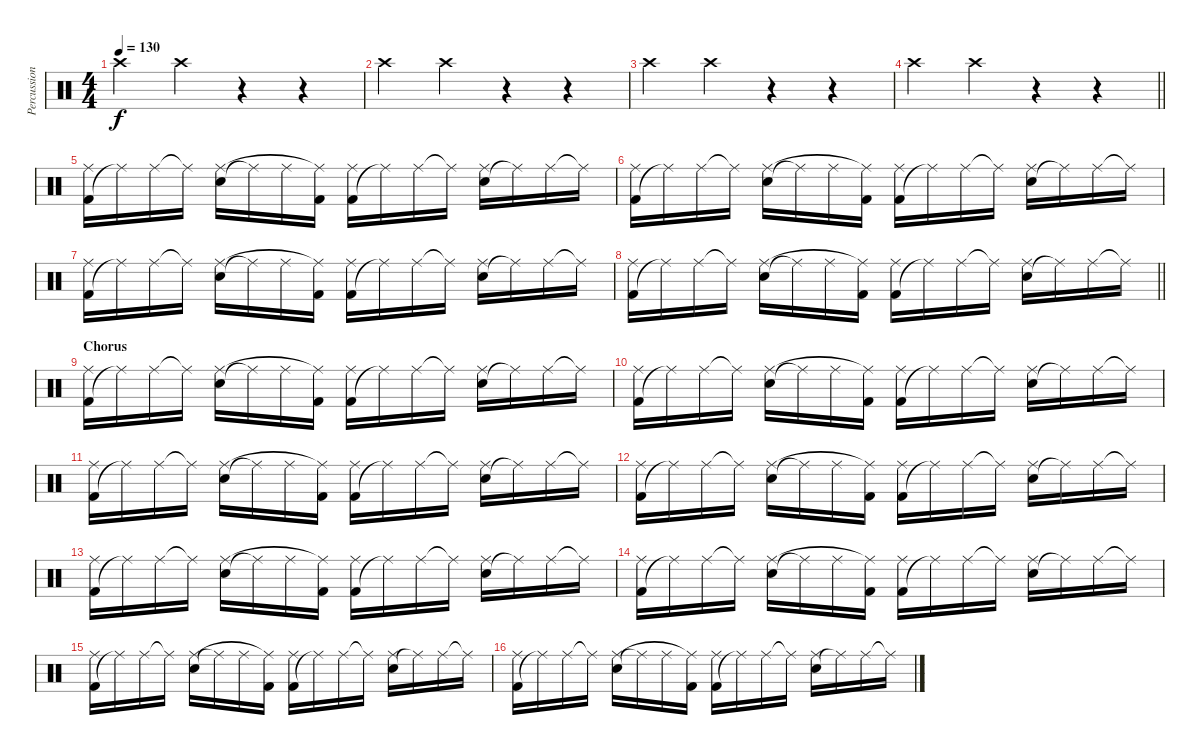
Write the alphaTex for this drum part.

\track ("Percussion" "Percussion") {instrument percussion}
\staff {score}
\articulation defaults
\ts (4 4)
\tempo 130
\clef neutral
\ks c "Crash high (hit)".4{dy f} "Crash high (hit)".4
r.4 r.4 |
"Crash high (hit)".4 "Crash high (hit)".4 r.4 r.4 |
"Crash high (hit)".4 "Crash high (hit)".4 r.4 r.4 |
\barLineRight lightlight "Crash high (hit)".4 "Crash high (hit)".4
r.4 r.4 |
("Kick (hit) 2" "Ride (middle)").16 "Ride (middle)"{t}.16 "Ride (middle)".16 "Ride (middle)"{t}.16 ("Snare (hit) 2" "Ride (middle)").16 "Ride (middle)"{t}.16 "Ride (middle)".16 ("Kick (hit) 2" "Ride (middle)"{t}).16 ("Kick (hit) 2" "Ride (middle)").16 "Ride (middle)"{t}.16 "Ride (middle)".16 "Ride (middle)"{t}.16 ("Snare (hit) 2" "Ride (middle)").16 "Ride (middle)"{t}.16 "Ride (middle)".16 "Ride (middle)"{t}.16 |
("Kick (hit) 2" "Ride (middle)").16 "Ride (middle)"{t}.16 "Ride (middle)".16 "Ride (middle)"{t}.16 ("Snare (hit) 2" "Ride (middle)").16 "Ride (middle)"{t}.16 "Ride (middle)".16 ("Kick (hit) 2" "Ride (middle)"{t}).16 ("Kick (hit) 2" "Ride (middle)").16 "Ride (middle)"{t}.16 "Ride (middle)".16 "Ride (middle)"{t}.16 ("Snare (hit) 2" "Ride (middle)").16 "Ride (middle)"{t}.16 "Ride (middle)".16 "Ride (middle)"{t}.16 |
("Kick (hit) 2" "Ride (middle)").16 "Ride (middle)"{t}.16 "Ride (middle)".16 "Ride (middle)"{t}.16 ("Snare (hit) 2" "Ride (middle)").16 "Ride (middle)"{t}.16 "Ride (middle)".16 ("Kick (hit) 2" "Ride (middle)"{t}).16 ("Kick (hit) 2" "Ride (middle)").16 "Ride (middle)"{t}.16 "Ride (middle)".16 "Ride (middle)"{t}.16 ("Snare (hit) 2" "Ride (middle)").16 "Ride (middle)"{t}.16 "Ride (middle)".16 "Ride (middle)"{t}.16 |
\barLineRight lightlight
("Kick (hit) 2" "Ride (middle)").16 "Ride (middle)"{t}.16 "Ride (middle)".16 "Ride (middle)"{t}.16 ("Snare (hit) 2" "Ride (middle)").16 "Ride (middle)"{t}.16 "Ride (middle)".16 ("Kick (hit) 2" "Ride (middle)"{t}).16 ("Kick (hit) 2" "Ride (middle)").16 "Ride (middle)"{t}.16 "Ride (middle)".16 "Ride (middle)"{t}.16 ("Snare (hit) 2" "Ride (middle)").16 "Ride (middle)"{t}.16 "Ride (middle)".16 "Ride (middle)"{t}.16 |
\section ("" "Chorus")
("Kick (hit) 2" "Ride (middle)").16 "Ride (middle)"{t}.16 "Ride (middle)".16 "Ride (middle)"{t}.16 ("Snare (hit) 2" "Ride (middle)").16 "Ride (middle)"{t}.16 "Ride (middle)".16 ("Kick (hit) 2" "Ride (middle)"{t}).16 ("Kick (hit) 2" "Ride (middle)").16 "Ride (middle)"{t}.16 "Ride (middle)".16 "Ride (middle)"{t}.16 ("Snare (hit) 2" "Ride (middle)").16 "Ride (middle)"{t}.16 "Ride (middle)".16 "Ride (middle)"{t}.16 |
("Kick (hit) 2" "Ride (middle)").16 "Ride (middle)"{t}.16 "Ride (middle)".16 "Ride (middle)"{t}.16 ("Snare (hit) 2" "Ride (middle)").16 "Ride (middle)"{t}.16 "Ride (middle)".16 ("Kick (hit) 2" "Ride (middle)"{t}).16 ("Kick (hit) 2" "Ride (middle)").16 "Ride (middle)"{t}.16 "Ride (middle)".16 "Ride (middle)"{t}.16 ("Snare (hit) 2" "Ride (middle)").16 "Ride (middle)"{t}.16 "Ride (middle)".16 "Ride (middle)"{t}.16 |
("Kick (hit) 2" "Ride (middle)").16 "Ride (middle)"{t}.16 "Ride (middle)".16 "Ride (middle)"{t}.16 ("Snare (hit) 2" "Ride (middle)").16 "Ride (middle)"{t}.16 "Ride (middle)".16 ("Kick (hit) 2" "Ride (middle)"{t}).16 ("Kick (hit) 2" "Ride (middle)").16 "Ride (middle)"{t}.16 "Ride (middle)".16 "Ride (middle)"{t}.16 ("Snare (hit) 2" "Ride (middle)").16 "Ride (middle)"{t}.16 "Ride (middle)".16 "Ride (middle)"{t}.16 |
("Kick (hit) 2" "Ride (middle)").16 "Ride (middle)"{t}.16 "Ride (middle)".16 "Ride (middle)"{t}.16 ("Snare (hit) 2" "Ride (middle)").16 "Ride (middle)"{t}.16 "Ride (middle)".16 ("Kick (hit) 2" "Ride (middle)"{t}).16 ("Kick (hit) 2" "Ride (middle)").16 "Ride (middle)"{t}.16 "Ride (middle)".16 "Ride (middle)"{t}.16 ("Snare (hit) 2" "Ride (middle)").16 "Ride (middle)"{t}.16 "Ride (middle)".16 "Ride (middle)"{t}.16 |
("Kick (hit) 2" "Ride (middle)").16 "Ride (middle)"{t}.16 "Ride (middle)".16 "Ride (middle)"{t}.16 ("Snare (hit) 2" "Ride (middle)").16 "Ride (middle)"{t}.16 "Ride (middle)".16 ("Kick (hit) 2" "Ride (middle)"{t}).16 ("Kick (hit) 2" "Ride (middle)").16 "Ride (middle)"{t}.16 "Ride (middle)".16 "Ride (middle)"{t}.16 ("Snare (hit) 2" "Ride (middle)").16 "Ride (middle)"{t}.16 "Ride (middle)".16 "Ride (middle)"{t}.16 |
("Kick (hit) 2" "Ride (middle)").16 "Ride (middle)"{t}.16 "Ride (middle)".16 "Ride (middle)"{t}.16 ("Snare (hit) 2" "Ride (middle)").16 "Ride (middle)"{t}.16 "Ride (middle)".16 ("Kick (hit) 2" "Ride (middle)"{t}).16 ("Kick (hit) 2" "Ride (middle)").16 "Ride (middle)"{t}.16 "Ride (middle)".16 "Ride (middle)"{t}.16 ("Snare (hit) 2" "Ride (middle)").16 "Ride (middle)"{t}.16 "Ride (middle)".16 "Ride (middle)"{t}.16 |
("Kick (hit) 2" "Ride (middle)").16 "Ride (middle)"{t}.16 "Ride (middle)".16 "Ride (middle)"{t}.16 ("Snare (hit) 2" "Ride (middle)").16 "Ride (middle)"{t}.16 "Ride (middle)".16 ("Kick (hit) 2" "Ride (middle)"{t}).16 ("Kick (hit) 2" "Ride (middle)").16 "Ride (middle)"{t}.16 "Ride (middle)".16 "Ride (middle)"{t}.16 ("Snare (hit) 2" "Ride (middle)").16 "Ride (middle)"{t}.16 "Ride (middle)".16 "Ride (middle)"{t}.16 |
("Kick (hit) 2" "Ride (middle)").16 "Ride (middle)"{t}.16 "Ride (middle)".16 "Ride (middle)"{t}.16 ("Snare (hit) 2" "Ride (middle)").16 "Ride (middle)"{t}.16 "Ride (middle)".16 ("Kick (hit) 2" "Ride (middle)"{t}).16 ("Kick (hit) 2" "Ride (middle)").16 "Ride (middle)"{t}.16 "Ride (middle)".16 "Ride (middle)"{t}.16 ("Snare (hit) 2" "Ride (middle)").16 "Ride (middle)"{t}.16 "Ride (middle)".16 "Ride (middle)"{t}.16
